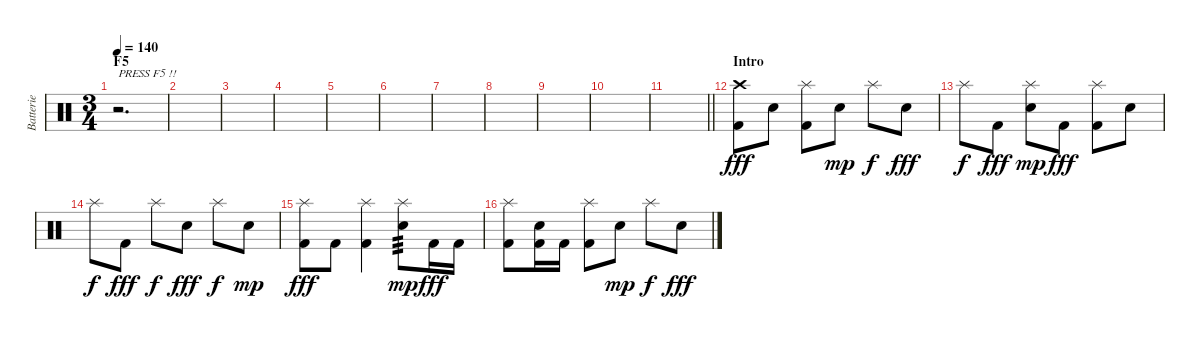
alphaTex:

\track ("Batterie" "Batterie") {instrument percussion}
\staff {score}
\articulation defaults
\ts (3 4)
\section ("" "F5")
\tempo 140
\clef neutral
\ks c
r.2{d txt "PRESS F5 !!" dy fff} |
|
|
|
|
|
|
|
|
|
\barLineRight lightlight
|
\section ("" "Intro")
("Crash high (hit)" "Kick (hit) 2").8 "Electric Snare (hit)".8 ("Splash (hit)" "Kick (hit) 2").8 "Electric Snare (hit)".8{dy mp} "Splash (hit)".8{dy f} "Electric Snare (hit)".8{dy fff} |
"Splash (hit)".8{dy f} "Kick (hit) 2".8{dy fff} ("Splash (hit)" "Electric Snare (hit)").8{dy mp} "Kick (hit) 2".8{dy fff} ("Splash (hit)" "Kick (hit) 2").8 "Electric Snare (hit)".8 |
"Splash (hit)".8{dy f} "Kick (hit) 2".8{dy fff} "Splash (hit)".8{dy f} "Electric Snare (hit)".8{dy fff} "Splash (hit)".8{dy f} "Electric Snare (hit)".8{dy mp} |
("Splash (hit)" "Kick (hit) 2").8{dy fff} "Kick (hit) 2".8 ("Splash (hit)" "Kick (hit) 2").4 ("Splash (hit)" "Electric Snare (hit)").8{tp 3 dy mp} "Kick (hit) 2".16{dy fff} "Kick (hit) 2".16 |
("Splash (hit)" "Kick (hit) 2").8 ("Electric Snare (hit)" "Kick (hit) 2").16 "Kick (hit) 2".16 ("Splash (hit)" "Kick (hit) 2").8 "Electric Snare (hit)".8{dy mp} "Splash (hit)".8{dy f} "Electric Snare (hit)".8{dy fff}
